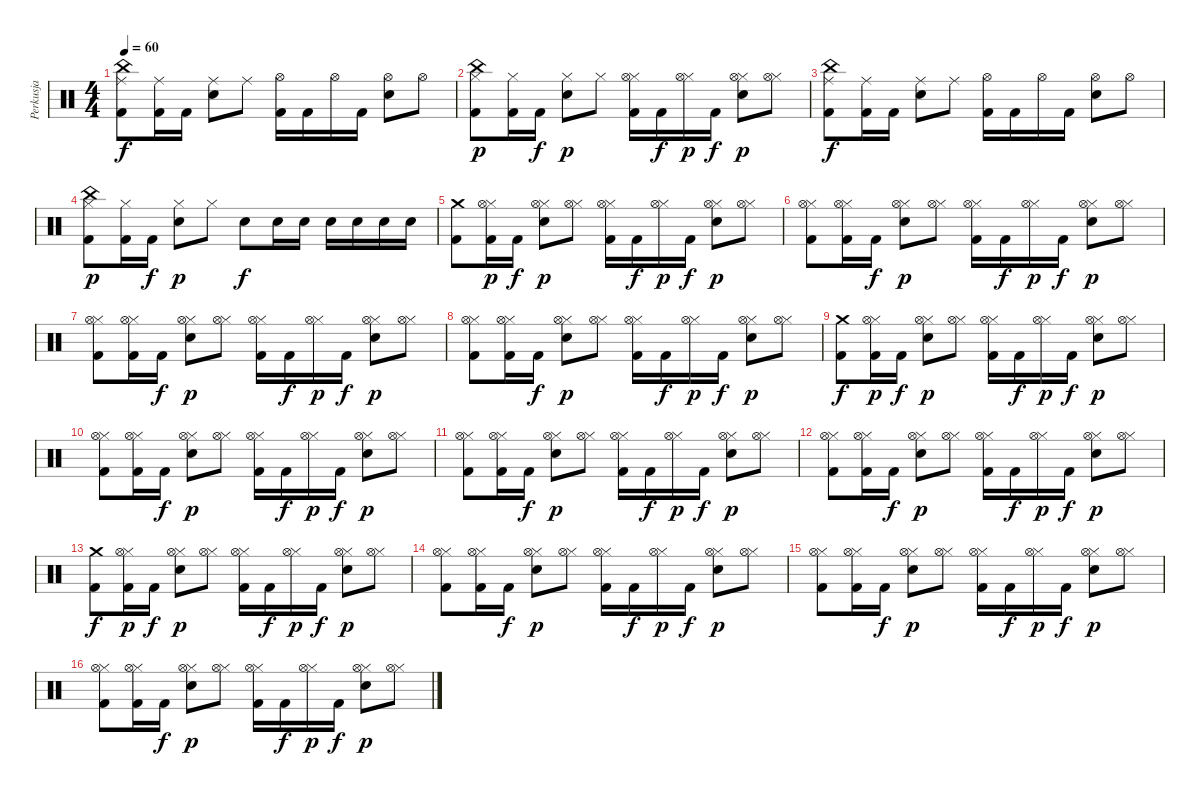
\track ("Perkusja" "Perkusja") {instrument percussion}
\staff {score}
\articulation defaults
\ts (4 4)
\tempo 60
\clef neutral
\ks c
("Kick (hit) 2" "Ride (middle)" "China (hit)").8{dy f} ("Kick (hit) 2" "Ride (middle)").16 "Kick (hit) 2".16 ("Electric Snare (hit)" "Ride (middle)").8 "Ride (middle)".8 ("Kick (hit) 2" "Hi-Hat (open)").16 "Kick (hit) 2".16 "Hi-Hat (open)".16 "Kick (hit) 2".16 ("Electric Snare (hit)" "Hi-Hat (open)").8 "Hi-Hat (open)".8 |
("Kick (hit) 2" "Hi-Hat (closed)" "China (hit)").8{dy p} ("Kick (hit) 2" "Hi-Hat (closed)").16 "Kick (hit) 2".16{dy f} ("Electric Snare (hit)" "Hi-Hat (closed)").8{dy p} "Hi-Hat (closed)".8 ("Kick (hit) 2" "Hi-Hat (closed)" "Hi-Hat (open)").16 "Kick (hit) 2".16{dy f} ("Hi-Hat (closed)" "Hi-Hat (open)").16{dy p} "Kick (hit) 2".16{dy f} ("Electric Snare (hit)" "Hi-Hat (closed)" "Hi-Hat (open)").8{dy p} ("Hi-Hat (closed)" "Hi-Hat (open)").8 |
("Kick (hit) 2" "Ride (middle)" "China (hit)").8{dy f} ("Kick (hit) 2" "Ride (middle)").16 "Kick (hit) 2".16 ("Electric Snare (hit)" "Ride (middle)").8 "Ride (middle)".8 ("Kick (hit) 2" "Hi-Hat (open)").16 "Kick (hit) 2".16 "Hi-Hat (open)".16 "Kick (hit) 2".16 ("Electric Snare (hit)" "Hi-Hat (open)").8 "Hi-Hat (open)".8 |
("Kick (hit) 2" "Hi-Hat (closed)" "China (hit)").8{dy p} ("Kick (hit) 2" "Hi-Hat (closed)").16 "Kick (hit) 2".16{dy f} ("Electric Snare (hit)" "Hi-Hat (closed)").8{dy p} "Hi-Hat (closed)".8 "Electric Snare (hit)".8{dy f} "Electric Snare (hit)".16 "Electric Snare (hit)".16 "Electric Snare (hit)".16 "Electric Snare (hit)".16 "Electric Snare (hit)".16 "Electric Snare (hit)".16 |
("Kick (hit) 2" "Crash medium (hit)").8 ("Kick (hit) 2" "Hi-Hat (closed)" "Hi-Hat (open)").16{dy p} "Kick (hit) 2".16{dy f} ("Electric Snare (hit)" "Hi-Hat (closed)" "Hi-Hat (open)").8{dy p} ("Hi-Hat (closed)" "Hi-Hat (open)").8 ("Kick (hit) 2" "Hi-Hat (closed)" "Hi-Hat (open)").16 "Kick (hit) 2".16{dy f} ("Hi-Hat (closed)" "Hi-Hat (open)").16{dy p} "Kick (hit) 2".16{dy f} ("Electric Snare (hit)" "Hi-Hat (closed)" "Hi-Hat (open)").8{dy p} ("Hi-Hat (closed)" "Hi-Hat (open)").8 |
("Kick (hit) 2" "Hi-Hat (closed)" "Hi-Hat (open)").8 ("Kick (hit) 2" "Hi-Hat (closed)" "Hi-Hat (open)").16 "Kick (hit) 2".16{dy f} ("Electric Snare (hit)" "Hi-Hat (closed)" "Hi-Hat (open)").8{dy p} ("Hi-Hat (closed)" "Hi-Hat (open)").8 ("Kick (hit) 2" "Hi-Hat (closed)" "Hi-Hat (open)").16 "Kick (hit) 2".16{dy f} ("Hi-Hat (closed)" "Hi-Hat (open)").16{dy p} "Kick (hit) 2".16{dy f} ("Electric Snare (hit)" "Hi-Hat (closed)" "Hi-Hat (open)").8{dy p} ("Hi-Hat (closed)" "Hi-Hat (open)").8 |
("Kick (hit) 2" "Hi-Hat (closed)" "Hi-Hat (open)").8 ("Kick (hit) 2" "Hi-Hat (closed)" "Hi-Hat (open)").16 "Kick (hit) 2".16{dy f} ("Electric Snare (hit)" "Hi-Hat (closed)" "Hi-Hat (open)").8{dy p} ("Hi-Hat (closed)" "Hi-Hat (open)").8 ("Kick (hit) 2" "Hi-Hat (closed)" "Hi-Hat (open)").16 "Kick (hit) 2".16{dy f} ("Hi-Hat (closed)" "Hi-Hat (open)").16{dy p} "Kick (hit) 2".16{dy f} ("Electric Snare (hit)" "Hi-Hat (closed)" "Hi-Hat (open)").8{dy p} ("Hi-Hat (closed)" "Hi-Hat (open)").8 |
("Kick (hit) 2" "Hi-Hat (closed)" "Hi-Hat (open)").8 ("Kick (hit) 2" "Hi-Hat (closed)" "Hi-Hat (open)").16 "Kick (hit) 2".16{dy f} ("Electric Snare (hit)" "Hi-Hat (closed)" "Hi-Hat (open)").8{dy p} ("Hi-Hat (closed)" "Hi-Hat (open)").8 ("Kick (hit) 2" "Hi-Hat (closed)" "Hi-Hat (open)").16 "Kick (hit) 2".16{dy f} ("Hi-Hat (closed)" "Hi-Hat (open)").16{dy p} "Kick (hit) 2".16{dy f} ("Electric Snare (hit)" "Hi-Hat (closed)" "Hi-Hat (open)").8{dy p} ("Hi-Hat (closed)" "Hi-Hat (open)").8 |
("Kick (hit) 2" "Crash medium (hit)").8{dy f} ("Kick (hit) 2" "Hi-Hat (closed)" "Hi-Hat (open)").16{dy p} "Kick (hit) 2".16{dy f} ("Electric Snare (hit)" "Hi-Hat (closed)" "Hi-Hat (open)").8{dy p} ("Hi-Hat (closed)" "Hi-Hat (open)").8 ("Kick (hit) 2" "Hi-Hat (closed)" "Hi-Hat (open)").16 "Kick (hit) 2".16{dy f} ("Hi-Hat (closed)" "Hi-Hat (open)").16{dy p} "Kick (hit) 2".16{dy f} ("Electric Snare (hit)" "Hi-Hat (closed)" "Hi-Hat (open)").8{dy p} ("Hi-Hat (closed)" "Hi-Hat (open)").8 |
("Kick (hit) 2" "Hi-Hat (closed)" "Hi-Hat (open)").8 ("Kick (hit) 2" "Hi-Hat (closed)" "Hi-Hat (open)").16 "Kick (hit) 2".16{dy f} ("Electric Snare (hit)" "Hi-Hat (closed)" "Hi-Hat (open)").8{dy p} ("Hi-Hat (closed)" "Hi-Hat (open)").8 ("Kick (hit) 2" "Hi-Hat (closed)" "Hi-Hat (open)").16 "Kick (hit) 2".16{dy f} ("Hi-Hat (closed)" "Hi-Hat (open)").16{dy p} "Kick (hit) 2".16{dy f} ("Electric Snare (hit)" "Hi-Hat (closed)" "Hi-Hat (open)").8{dy p} ("Hi-Hat (closed)" "Hi-Hat (open)").8 |
("Kick (hit) 2" "Hi-Hat (closed)" "Hi-Hat (open)").8 ("Kick (hit) 2" "Hi-Hat (closed)" "Hi-Hat (open)").16 "Kick (hit) 2".16{dy f} ("Electric Snare (hit)" "Hi-Hat (closed)" "Hi-Hat (open)").8{dy p} ("Hi-Hat (closed)" "Hi-Hat (open)").8 ("Kick (hit) 2" "Hi-Hat (closed)" "Hi-Hat (open)").16 "Kick (hit) 2".16{dy f} ("Hi-Hat (closed)" "Hi-Hat (open)").16{dy p} "Kick (hit) 2".16{dy f} ("Electric Snare (hit)" "Hi-Hat (closed)" "Hi-Hat (open)").8{dy p} ("Hi-Hat (closed)" "Hi-Hat (open)").8 |
("Kick (hit) 2" "Hi-Hat (closed)" "Hi-Hat (open)").8 ("Kick (hit) 2" "Hi-Hat (closed)" "Hi-Hat (open)").16 "Kick (hit) 2".16{dy f} ("Electric Snare (hit)" "Hi-Hat (closed)" "Hi-Hat (open)").8{dy p} ("Hi-Hat (closed)" "Hi-Hat (open)").8 ("Kick (hit) 2" "Hi-Hat (closed)" "Hi-Hat (open)").16 "Kick (hit) 2".16{dy f} ("Hi-Hat (closed)" "Hi-Hat (open)").16{dy p} "Kick (hit) 2".16{dy f} ("Electric Snare (hit)" "Hi-Hat (closed)" "Hi-Hat (open)").8{dy p} ("Hi-Hat (closed)" "Hi-Hat (open)").8 |
("Kick (hit) 2" "Crash medium (hit)").8{dy f} ("Kick (hit) 2" "Hi-Hat (closed)" "Hi-Hat (open)").16{dy p} "Kick (hit) 2".16{dy f} ("Electric Snare (hit)" "Hi-Hat (closed)" "Hi-Hat (open)").8{dy p} ("Hi-Hat (closed)" "Hi-Hat (open)").8 ("Kick (hit) 2" "Hi-Hat (closed)" "Hi-Hat (open)").16 "Kick (hit) 2".16{dy f} ("Hi-Hat (closed)" "Hi-Hat (open)").16{dy p} "Kick (hit) 2".16{dy f} ("Electric Snare (hit)" "Hi-Hat (closed)" "Hi-Hat (open)").8{dy p} ("Hi-Hat (closed)" "Hi-Hat (open)").8 |
("Kick (hit) 2" "Hi-Hat (closed)" "Hi-Hat (open)").8 ("Kick (hit) 2" "Hi-Hat (closed)" "Hi-Hat (open)").16 "Kick (hit) 2".16{dy f} ("Electric Snare (hit)" "Hi-Hat (closed)" "Hi-Hat (open)").8{dy p} ("Hi-Hat (closed)" "Hi-Hat (open)").8 ("Kick (hit) 2" "Hi-Hat (closed)" "Hi-Hat (open)").16 "Kick (hit) 2".16{dy f} ("Hi-Hat (closed)" "Hi-Hat (open)").16{dy p} "Kick (hit) 2".16{dy f} ("Electric Snare (hit)" "Hi-Hat (closed)" "Hi-Hat (open)").8{dy p} ("Hi-Hat (closed)" "Hi-Hat (open)").8 |
("Kick (hit) 2" "Hi-Hat (closed)" "Hi-Hat (open)").8 ("Kick (hit) 2" "Hi-Hat (closed)" "Hi-Hat (open)").16 "Kick (hit) 2".16{dy f} ("Electric Snare (hit)" "Hi-Hat (closed)" "Hi-Hat (open)").8{dy p} ("Hi-Hat (closed)" "Hi-Hat (open)").8 ("Kick (hit) 2" "Hi-Hat (closed)" "Hi-Hat (open)").16 "Kick (hit) 2".16{dy f} ("Hi-Hat (closed)" "Hi-Hat (open)").16{dy p} "Kick (hit) 2".16{dy f} ("Electric Snare (hit)" "Hi-Hat (closed)" "Hi-Hat (open)").8{dy p} ("Hi-Hat (closed)" "Hi-Hat (open)").8 |
("Kick (hit) 2" "Hi-Hat (closed)" "Hi-Hat (open)").8 ("Kick (hit) 2" "Hi-Hat (closed)" "Hi-Hat (open)").16 "Kick (hit) 2".16{dy f} ("Electric Snare (hit)" "Hi-Hat (closed)" "Hi-Hat (open)").8{dy p} ("Hi-Hat (closed)" "Hi-Hat (open)").8 ("Kick (hit) 2" "Hi-Hat (closed)" "Hi-Hat (open)").16 "Kick (hit) 2".16{dy f} ("Hi-Hat (closed)" "Hi-Hat (open)").16{dy p} "Kick (hit) 2".16{dy f} ("Electric Snare (hit)" "Hi-Hat (closed)" "Hi-Hat (open)").8{dy p} ("Hi-Hat (closed)" "Hi-Hat (open)").8
